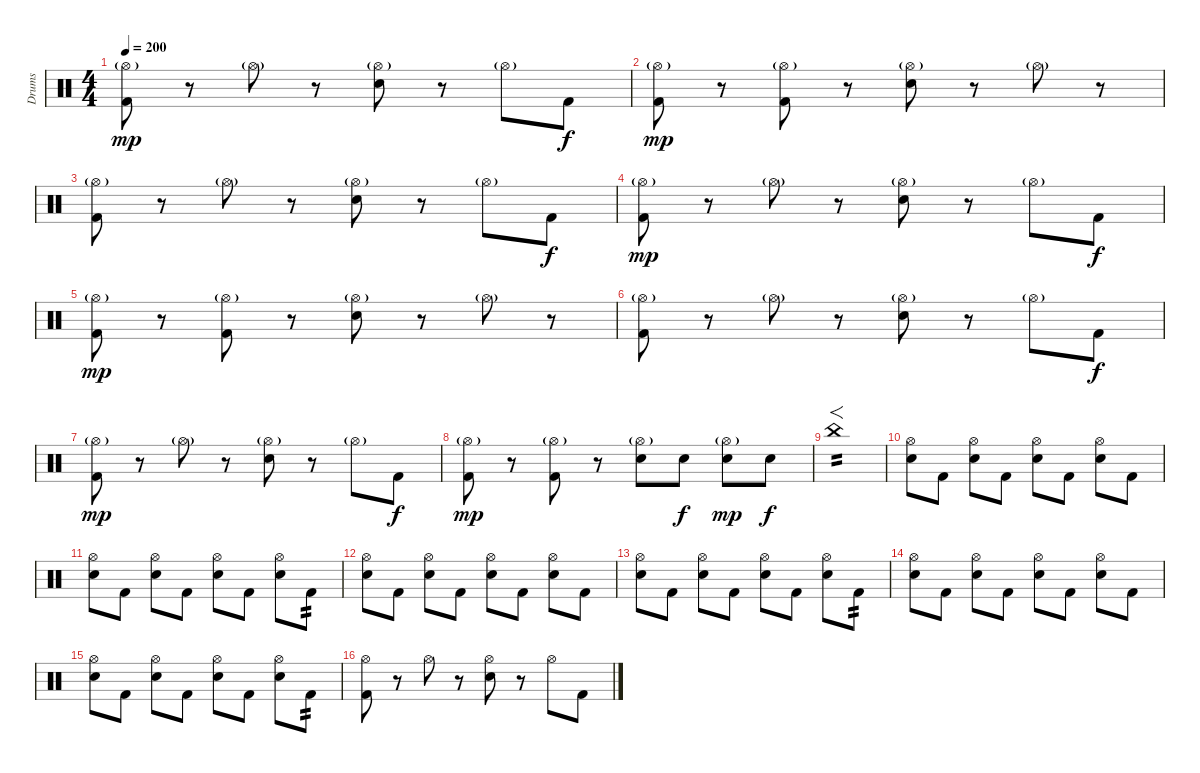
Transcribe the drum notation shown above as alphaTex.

\track ("Drums" "Drums") {instrument percussion}
\staff {score}
\articulation defaults
\ts (4 4)
\tempo 200
\clef neutral
\ks c
("Hi-Hat (open)"{g} "Kick (hit) 2").8{dy mp} r.8 "Hi-Hat (open)"{g}.8 r.8 ("Hi-Hat (open)"{g} "Electric Snare (hit)").8 r.8 "Hi-Hat (open)"{g}.8 "Kick (hit) 2".8{dy f} |
("Hi-Hat (open)"{g} "Kick (hit) 2").8{dy mp} r.8 ("Hi-Hat (open)"{g} "Kick (hit) 2").8 r.8 ("Hi-Hat (open)"{g} "Electric Snare (hit)").8 r.8 "Hi-Hat (open)"{g}.8 r.8 |
("Hi-Hat (open)"{g} "Kick (hit) 2").8 r.8 "Hi-Hat (open)"{g}.8 r.8 ("Hi-Hat (open)"{g} "Electric Snare (hit)").8 r.8 "Hi-Hat (open)"{g}.8 "Kick (hit) 2".8{dy f} |
("Hi-Hat (open)"{g} "Kick (hit) 2").8{dy mp} r.8 "Hi-Hat (open)"{g}.8 r.8 ("Hi-Hat (open)"{g} "Electric Snare (hit)").8 r.8 "Hi-Hat (open)"{g}.8 "Kick (hit) 2".8{dy f} |
("Hi-Hat (open)"{g} "Kick (hit) 2").8{dy mp} r.8 ("Hi-Hat (open)"{g} "Kick (hit) 2").8 r.8 ("Hi-Hat (open)"{g} "Electric Snare (hit)").8 r.8 "Hi-Hat (open)"{g}.8 r.8 |
("Hi-Hat (open)"{g} "Kick (hit) 2").8 r.8 "Hi-Hat (open)"{g}.8 r.8 ("Hi-Hat (open)"{g} "Electric Snare (hit)").8 r.8 "Hi-Hat (open)"{g}.8 "Kick (hit) 2".8{dy f} |
("Hi-Hat (open)"{g} "Kick (hit) 2").8{dy mp} r.8 "Hi-Hat (open)"{g}.8 r.8 ("Hi-Hat (open)"{g} "Electric Snare (hit)").8 r.8 "Hi-Hat (open)"{g}.8 "Kick (hit) 2".8{dy f} |
("Hi-Hat (open)"{g} "Kick (hit) 2").8{dy mp} r.8 ("Hi-Hat (open)"{g} "Kick (hit) 2").8 r.8 ("Hi-Hat (open)"{g} "Electric Snare (hit)").8 "Electric Snare (hit)".8{dy f} ("Hi-Hat (open)"{g} "Electric Snare (hit)").8{dy mp} "Electric Snare (hit)".8{dy f} |
"China (hit)".1{f tp 2} |
("Hi-Hat (open)" "Electric Snare (hit)").8 "Kick (hit) 2".8 ("Hi-Hat (open)" "Electric Snare (hit)").8 "Kick (hit) 2".8 ("Hi-Hat (open)" "Electric Snare (hit)").8 "Kick (hit) 2".8 ("Hi-Hat (open)" "Electric Snare (hit)").8 "Kick (hit) 2".8 |
("Hi-Hat (open)" "Electric Snare (hit)").8 "Kick (hit) 2".8 ("Hi-Hat (open)" "Electric Snare (hit)").8 "Kick (hit) 2".8 ("Hi-Hat (open)" "Electric Snare (hit)").8 "Kick (hit) 2".8 ("Hi-Hat (open)" "Electric Snare (hit)").8 "Kick (hit) 2".8{tp 2} |
("Hi-Hat (open)" "Electric Snare (hit)").8 "Kick (hit) 2".8 ("Hi-Hat (open)" "Electric Snare (hit)").8 "Kick (hit) 2".8 ("Hi-Hat (open)" "Electric Snare (hit)").8 "Kick (hit) 2".8 ("Hi-Hat (open)" "Electric Snare (hit)").8 "Kick (hit) 2".8 |
("Hi-Hat (open)" "Electric Snare (hit)").8 "Kick (hit) 2".8 ("Hi-Hat (open)" "Electric Snare (hit)").8 "Kick (hit) 2".8 ("Hi-Hat (open)" "Electric Snare (hit)").8 "Kick (hit) 2".8 ("Hi-Hat (open)" "Electric Snare (hit)").8 "Kick (hit) 2".8{tp 2} |
("Hi-Hat (open)" "Electric Snare (hit)").8 "Kick (hit) 2".8 ("Hi-Hat (open)" "Electric Snare (hit)").8 "Kick (hit) 2".8 ("Hi-Hat (open)" "Electric Snare (hit)").8 "Kick (hit) 2".8 ("Hi-Hat (open)" "Electric Snare (hit)").8 "Kick (hit) 2".8 |
("Hi-Hat (open)" "Electric Snare (hit)").8 "Kick (hit) 2".8 ("Hi-Hat (open)" "Electric Snare (hit)").8 "Kick (hit) 2".8 ("Hi-Hat (open)" "Electric Snare (hit)").8 "Kick (hit) 2".8 ("Hi-Hat (open)" "Electric Snare (hit)").8 "Kick (hit) 2".8{tp 2} |
("Hi-Hat (open)" "Kick (hit) 2").8 r.8 "Hi-Hat (open)".8 r.8 ("Hi-Hat (open)" "Electric Snare (hit)").8 r.8 "Hi-Hat (open)".8 "Kick (hit) 2".8
